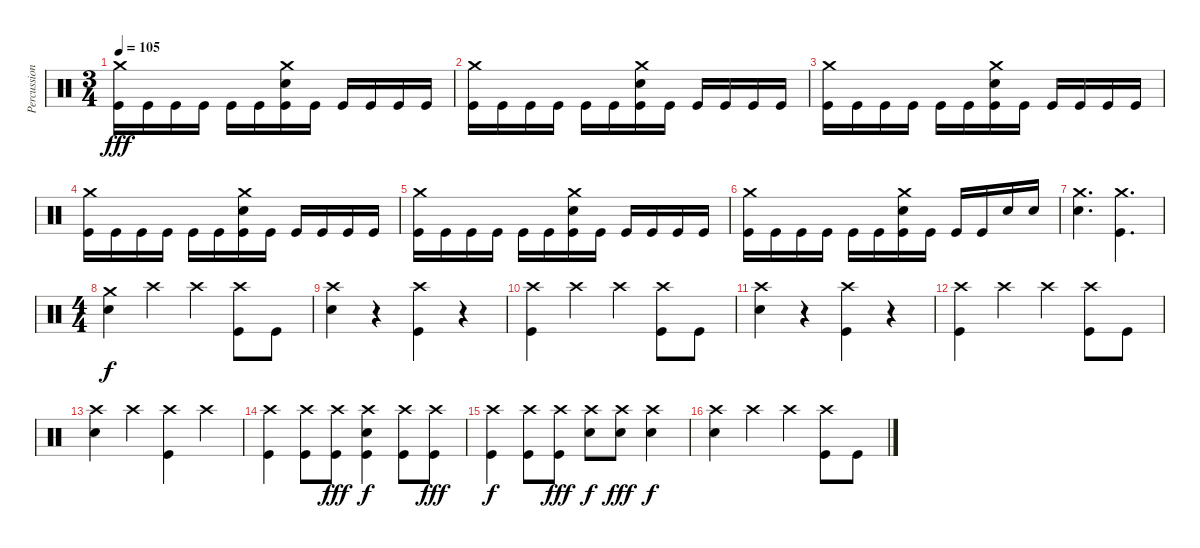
\track ("Percussions" "Percussion") {instrument percussion}
\staff {score}
\articulation defaults
\ts (3 4)
\tempo 105
\clef neutral
\ks c
("Crash medium (hit)" "Kick (hit)").16{dy fff} "Kick (hit)".16 "Kick (hit)".16 "Kick (hit)".16 "Kick (hit)".16 "Kick (hit)".16 ("Crash medium (hit)" "Snare (hit) 2" "Kick (hit)").16 "Kick (hit)".16 "Kick (hit)".16 "Kick (hit)".16 "Kick (hit)".16 "Kick (hit)".16 |
("Crash medium (hit)" "Kick (hit)").16 "Kick (hit)".16 "Kick (hit)".16 "Kick (hit)".16 "Kick (hit)".16 "Kick (hit)".16 ("Crash medium (hit)" "Snare (hit) 2" "Kick (hit)").16 "Kick (hit)".16 "Kick (hit)".16 "Kick (hit)".16 "Kick (hit)".16 "Kick (hit)".16 |
("Crash medium (hit)" "Kick (hit)").16 "Kick (hit)".16 "Kick (hit)".16 "Kick (hit)".16 "Kick (hit)".16 "Kick (hit)".16 ("Crash medium (hit)" "Snare (hit) 2" "Kick (hit)").16 "Kick (hit)".16 "Kick (hit)".16 "Kick (hit)".16 "Kick (hit)".16 "Kick (hit)".16 |
("Crash medium (hit)" "Kick (hit)").16 "Kick (hit)".16 "Kick (hit)".16 "Kick (hit)".16 "Kick (hit)".16 "Kick (hit)".16 ("Crash medium (hit)" "Snare (hit) 2" "Kick (hit)").16 "Kick (hit)".16 "Kick (hit)".16 "Kick (hit)".16 "Kick (hit)".16 "Kick (hit)".16 |
("Crash medium (hit)" "Kick (hit)").16 "Kick (hit)".16 "Kick (hit)".16 "Kick (hit)".16 "Kick (hit)".16 "Kick (hit)".16 ("Crash medium (hit)" "Snare (hit) 2" "Kick (hit)").16 "Kick (hit)".16 "Kick (hit)".16 "Kick (hit)".16 "Kick (hit)".16 "Kick (hit)".16 |
("Crash medium (hit)" "Kick (hit)").16 "Kick (hit)".16 "Kick (hit)".16 "Kick (hit)".16 "Kick (hit)".16 "Kick (hit)".16 ("Crash medium (hit)" "Snare (hit) 2" "Kick (hit)").16 "Kick (hit)".16 "Kick (hit)".16 "Kick (hit)".16 "Snare (hit) 2".16 "Snare (hit) 2".16 |
("Crash medium (hit)" "Snare (hit) 2").4{d} ("Crash medium (hit)" "Kick (hit)").4{d} |
\ts (4 4)
("Crash medium (hit)" "Snare (hit) 2").4{dy f} "Crash high (hit)".4 "Crash high (hit)".4 ("Crash high (hit)" "Kick (hit)").8 "Kick (hit)".8 |
("Crash high (hit)" "Snare (hit) 2").4 r.4 ("Crash high (hit)" "Kick (hit)").4 r.4 |
("Crash high (hit)" "Kick (hit)").4 "Crash high (hit)".4 "Crash high (hit)".4 ("Crash high (hit)" "Kick (hit)").8 "Kick (hit)".8 |
("Crash high (hit)" "Snare (hit) 2").4 r.4 ("Crash high (hit)" "Kick (hit)").4 r.4 |
("Crash high (hit)" "Kick (hit)").4 "Crash high (hit)".4 "Crash high (hit)".4 ("Crash high (hit)" "Kick (hit)").8 "Kick (hit)".8 |
("Crash high (hit)" "Snare (hit) 2").4 "Crash high (hit)".4 ("Crash high (hit)" "Kick (hit)").4 "Crash high (hit)".4 |
("Crash high (hit)" "Kick (hit)").4 ("Crash high (hit)" "Kick (hit)").8 ("Crash high (hit)" "Kick (hit)").8{dy fff} ("Crash high (hit)" "Snare (hit) 2" "Kick (hit)").4{dy f} ("Crash high (hit)" "Kick (hit)").8 ("Crash high (hit)" "Kick (hit)").8{dy fff} |
("Crash high (hit)" "Kick (hit)").4{dy f} ("Crash high (hit)" "Kick (hit)").8 ("Crash high (hit)" "Kick (hit)").8{dy fff} ("Crash high (hit)" "Snare (hit) 2").8{dy f} ("Crash high (hit)" "Snare (hit) 2").8{dy fff} ("Crash high (hit)" "Snare (hit) 2").4{dy f} |
("Crash high (hit)" "Snare (hit) 2").4 "Crash high (hit)".4 "Crash high (hit)".4 ("Crash high (hit)" "Kick (hit)").8 "Kick (hit)".8
